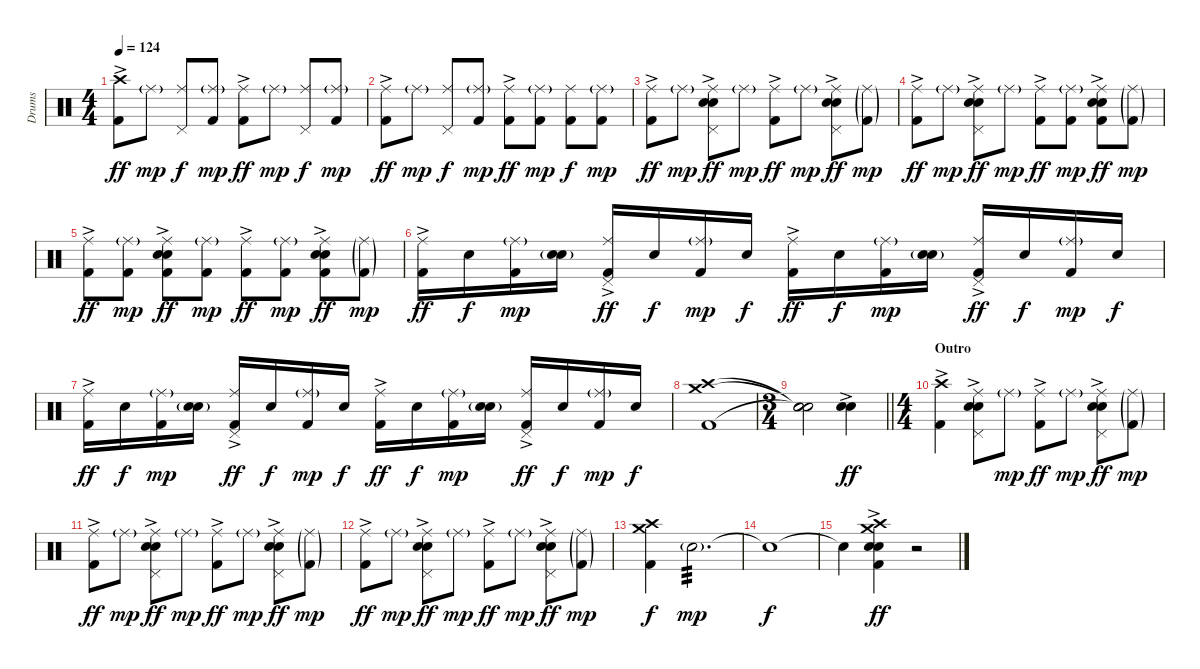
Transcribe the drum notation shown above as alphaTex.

\track ("Drums" "Drums") {instrument percussion}
\staff {score}
\articulation defaults
\ts (4 4)
\tempo 124
\clef neutral
\ks c
("Crash high (hit)" "Kick (hit) 2"{ac}).8{dy ff} "Ride (middle)"{g}.8{dy mp} ("Ride (middle)" "Pedal Hi-Hat (hit)").8{dy f} ("Ride (middle)"{g} "Kick (hit) 2").8{dy mp} ("Ride (middle)" "Kick (hit) 2"{ac}).8{dy ff} "Ride (middle)"{g}.8{dy mp} ("Ride (middle)" "Pedal Hi-Hat (hit)").8{dy f} ("Ride (middle)"{g} "Kick (hit) 2").8{dy mp} |
("Ride (middle)" "Kick (hit) 2"{ac}).8{dy ff} "Ride (middle)"{g}.8{dy mp} ("Ride (middle)" "Pedal Hi-Hat (hit)").8{dy f} ("Ride (middle)"{g} "Kick (hit) 2").8{dy mp} ("Ride (middle)" "Kick (hit) 2"{ac}).8{dy ff} ("Ride (middle)"{g} "Kick (hit) 2").8{dy mp} ("Ride (middle)" "Kick (hit) 2").8{dy f} ("Ride (middle)"{g} "Kick (hit) 2").8{dy mp} |
("Ride (middle)" "Kick (hit) 2"{ac}).8{dy ff} "Ride (middle)"{g}.8{dy mp} ("Ride (middle)" "Electric Snare (hit)"{ac} "Snare (hit) 2" "Pedal Hi-Hat (hit)").8{dy ff} "Ride (middle)"{g}.8{dy mp} ("Ride (middle)" "Kick (hit) 2"{ac}).8{dy ff} "Ride (middle)"{g}.8{dy mp} ("Ride (middle)" "Electric Snare (hit)"{ac} "Snare (hit) 2" "Pedal Hi-Hat (hit)").8{dy ff} ("Ride (middle)"{g} "Kick (hit) 2"{g}).8{dy mp} |
("Ride (middle)" "Kick (hit) 2"{ac}).8{dy ff} "Ride (middle)"{g}.8{dy mp} ("Ride (middle)" "Electric Snare (hit)"{ac} "Snare (hit) 2" "Pedal Hi-Hat (hit)").8{dy ff} "Ride (middle)"{g}.8{dy mp} ("Ride (middle)" "Kick (hit) 2"{ac}).8{dy ff} ("Ride (middle)"{g} "Kick (hit) 2").8{dy mp} ("Ride (middle)" "Electric Snare (hit)"{ac} "Snare (hit) 2" "Kick (hit) 2").8{dy ff} ("Ride (middle)"{g} "Kick (hit) 2"{g}).8{dy mp} |
("Ride (middle)" "Kick (hit) 2"{ac}).8{dy ff} ("Ride (middle)"{g} "Kick (hit) 2").8{dy mp} ("Ride (middle)" "Electric Snare (hit)"{ac} "Snare (hit) 2" "Kick (hit) 2").8{dy ff} ("Ride (middle)"{g} "Kick (hit) 2").8{dy mp} ("Ride (middle)" "Kick (hit) 2"{ac}).8{dy ff} ("Ride (middle)"{g} "Kick (hit) 2").8{dy mp} ("Ride (middle)" "Electric Snare (hit)"{ac} "Snare (hit) 2" "Kick (hit) 2").8{dy ff} ("Ride (middle)"{g} "Kick (hit) 2"{g}).8{dy mp} |
("Ride (middle)" "Kick (hit) 2"{ac}).16{dy ff} "Snare (hit) 2".16{dy f} ("Ride (middle)"{g} "Kick (hit) 2").16{dy mp} ("Electric Snare (hit)"{g} "Snare (hit) 2").16 ("Ride (middle)" "Pedal Hi-Hat (hit)" "Kick (hit) 2"{ac}).16{dy ff} "Snare (hit) 2".16{dy f} ("Ride (middle)"{g} "Kick (hit) 2").16{dy mp} "Snare (hit) 2".16{dy f} ("Ride (middle)" "Kick (hit) 2"{ac}).16{dy ff} "Snare (hit) 2".16{dy f} ("Ride (middle)"{g} "Kick (hit) 2").16{dy mp} ("Electric Snare (hit)"{g} "Snare (hit) 2").16 ("Ride (middle)" "Pedal Hi-Hat (hit)" "Kick (hit) 2"{ac}).16{dy ff} "Snare (hit) 2".16{dy f} ("Ride (middle)"{g} "Kick (hit) 2").16{dy mp} "Snare (hit) 2".16{dy f} |
("Ride (middle)" "Kick (hit) 2"{ac}).16{dy ff} "Snare (hit) 2".16{dy f} ("Ride (middle)"{g} "Kick (hit) 2").16{dy mp} ("Electric Snare (hit)"{g} "Snare (hit) 2").16 ("Ride (middle)" "Pedal Hi-Hat (hit)" "Kick (hit) 2"{ac}).16{dy ff} "Snare (hit) 2".16{dy f} ("Ride (middle)"{g} "Kick (hit) 2").16{dy mp} "Snare (hit) 2".16{dy f} ("Ride (middle)" "Kick (hit) 2"{ac}).16{dy ff} "Snare (hit) 2".16{dy f} ("Ride (middle)"{g} "Kick (hit) 2").16{dy mp} ("Electric Snare (hit)"{g} "Snare (hit) 2").16 ("Ride (middle)" "Pedal Hi-Hat (hit)" "Kick (hit) 2"{ac}).16{dy ff} "Snare (hit) 2".16{dy f} ("Ride (middle)"{g} "Kick (hit) 2").16{dy mp} "Snare (hit) 2".16{dy f} |
("Crash high (hit)" "Crash medium (hit)" "Kick (hit) 2").1 |
\ts (3 4)
\barLineRight lightlight
("Snare (hit)"{t} "Snare (hit)"{t} "Snare (hit)"{t}).2 ("Electric Snare (hit)"{ac} "Snare (hit) 2").4{dy ff} |
\ts (4 4)
\section ("" "Outro")
("Crash high (hit)" "Kick (hit) 2"{ac}).4 ("Ride (middle)" "Electric Snare (hit)"{ac} "Snare (hit) 2" "Pedal Hi-Hat (hit)").8 "Ride (middle)"{g}.8{dy mp} ("Ride (middle)" "Kick (hit) 2"{ac}).8{dy ff} "Ride (middle)"{g}.8{dy mp} ("Ride (middle)" "Electric Snare (hit)"{ac} "Snare (hit) 2" "Pedal Hi-Hat (hit)").8{dy ff} ("Ride (middle)"{g} "Kick (hit) 2"{g}).8{dy mp} |
("Ride (middle)" "Kick (hit) 2"{ac}).8{dy ff} "Ride (middle)"{g}.8{dy mp} ("Ride (middle)" "Electric Snare (hit)"{ac} "Snare (hit) 2" "Pedal Hi-Hat (hit)").8{dy ff} "Ride (middle)"{g}.8{dy mp} ("Ride (middle)" "Kick (hit) 2"{ac}).8{dy ff} "Ride (middle)"{g}.8{dy mp} ("Ride (middle)" "Electric Snare (hit)"{ac} "Snare (hit) 2" "Pedal Hi-Hat (hit)").8{dy ff} ("Ride (middle)"{g} "Kick (hit) 2"{g}).8{dy mp} |
("Ride (middle)" "Kick (hit) 2"{ac}).8{dy ff} "Ride (middle)"{g}.8{dy mp} ("Ride (middle)" "Electric Snare (hit)"{ac} "Snare (hit) 2" "Pedal Hi-Hat (hit)").8{dy ff} "Ride (middle)"{g}.8{dy mp} ("Ride (middle)" "Kick (hit) 2"{ac}).8{dy ff} "Ride (middle)"{g}.8{dy mp} ("Ride (middle)" "Electric Snare (hit)"{ac} "Snare (hit) 2" "Pedal Hi-Hat (hit)").8{dy ff} ("Ride (middle)"{g} "Kick (hit) 2"{g}).8{dy mp} |
("Crash high (hit)" "Crash medium (hit)" "Kick (hit) 2").4{dy f} "Snare (hit) 2"{g}.2{d tp 3 dy mp} |
"Snare (hit)"{t}.1{dy f} |
"Snare (hit)"{t}.4 ("Crash high (hit)" "Crash medium (hit)" "Electric Snare (hit)"{ac} "Snare (hit) 2" "Kick (hit) 2").4{dy ff} r.2
